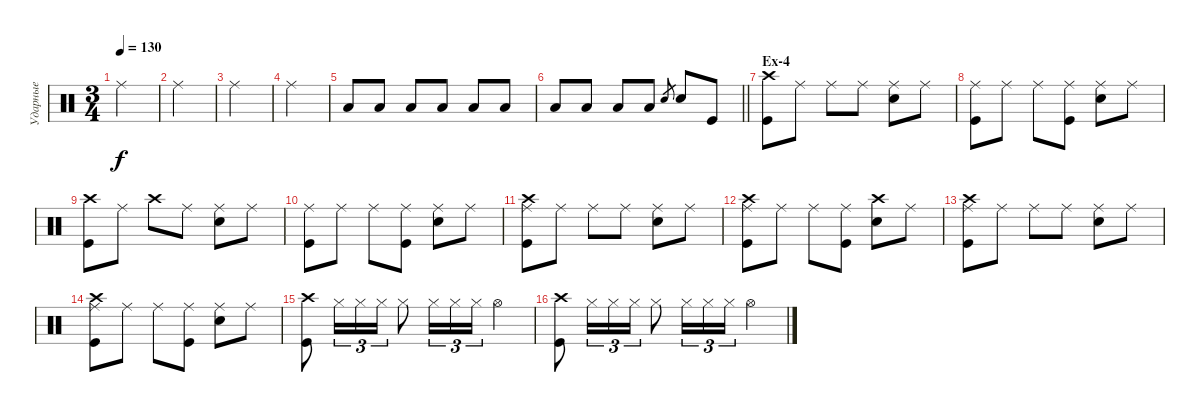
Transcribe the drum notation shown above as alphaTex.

\track ("Ударные" "Ударные") {instrument percussion}
\staff {score}
\articulation defaults
\ts (3 4)
\tempo 130
\clef neutral
\ks c "Ride (middle)".4{dy f}
|
"Ride (middle)".4 |
"Ride (middle)".4 |
"Ride (middle)".4 |
"Low Floor Tom (hit)".8 "Low Floor Tom (hit)".8 "Low Floor Tom (hit)".8 "Low Floor Tom (hit)".8 "Low Floor Tom (hit)".8 "Low Floor Tom (hit)".8 |
\barLineRight lightlight "Low Floor Tom (hit)".8 "Low Floor Tom (hit)".8 "Low Floor Tom (hit)".8 "Low Floor Tom (hit)".8 "Snare (hit) 2".8{gr} "Snare (hit) 2".8 "Kick (hit)".8
|
\section ("" "Ex-4")
("Crash high (hit)" "Kick (hit)").8 "Ride (middle)".8 "Ride (middle)".8 "Ride (middle)".8 ("Ride (middle)" "Snare (hit) 2").8 "Ride (middle)".8 |
("Ride (middle)" "Kick (hit)").8 "Ride (middle)".8 "Ride (middle)".8 ("Ride (middle)" "Kick (hit)").8 ("Ride (middle)" "Snare (hit) 2").8 "Ride (middle)".8 |
("Crash high (hit)" "Kick (hit)").8 "Ride (middle)".8 "Crash high (hit)".8 "Ride (middle)".8 ("Ride (middle)" "Snare (hit) 2").8 "Ride (middle)".8 |
("Ride (middle)" "Kick (hit)").8 "Ride (middle)".8 "Ride (middle)".8 ("Ride (middle)" "Kick (hit)").8 ("Ride (middle)" "Snare (hit) 2").8 "Ride (middle)".8 |
("Crash high (hit)" "Ride (middle)" "Kick (hit)").8 "Ride (middle)".8 "Ride (middle)".8 "Ride (middle)".8 ("Ride (middle)" "Snare (hit) 2").8 "Ride (middle)".8 |
("Crash high (hit)" "Ride (middle)" "Kick (hit)").8 "Ride (middle)".8 "Ride (middle)".8 ("Ride (middle)" "Kick (hit)").8 ("Crash high (hit)" "Snare (hit) 2").8 "Ride (middle)".8 |
("Crash high (hit)" "Ride (middle)" "Kick (hit)").8 "Ride (middle)".8 "Ride (middle)".8 "Ride (middle)".8 ("Ride (middle)" "Snare (hit) 2").8 "Ride (middle)".8 |
("Kick (hit)" "Ride (middle)" "Crash high (hit)").8 "Ride (middle)".8 "Ride (middle)".8 ("Ride (middle)" "Kick (hit)").8 ("Ride (middle)" "Snare (hit) 2").8 "Ride (middle)".8 |
("Crash high (hit)" "Kick (hit)").8 "Hi-Hat (closed)".16{tu (3 2)} "Hi-Hat (closed)".16{tu (3 2)} "Hi-Hat (closed)".16{tu (3 2)} "Hi-Hat (closed)".8 "Hi-Hat (closed)".16{tu (3 2)} "Hi-Hat (closed)".16{tu (3 2)} "Hi-Hat (closed)".16{tu (3 2)} "Hi-Hat (open)".4 |
("Crash high (hit)" "Kick (hit)").8 "Hi-Hat (closed)".16{tu (3 2)} "Hi-Hat (closed)".16{tu (3 2)} "Hi-Hat (closed)".16{tu (3 2)} "Hi-Hat (closed)".8 "Hi-Hat (closed)".16{tu (3 2)} "Hi-Hat (closed)".16{tu (3 2)} "Hi-Hat (closed)".16{tu (3 2)} "Hi-Hat (open)".4
